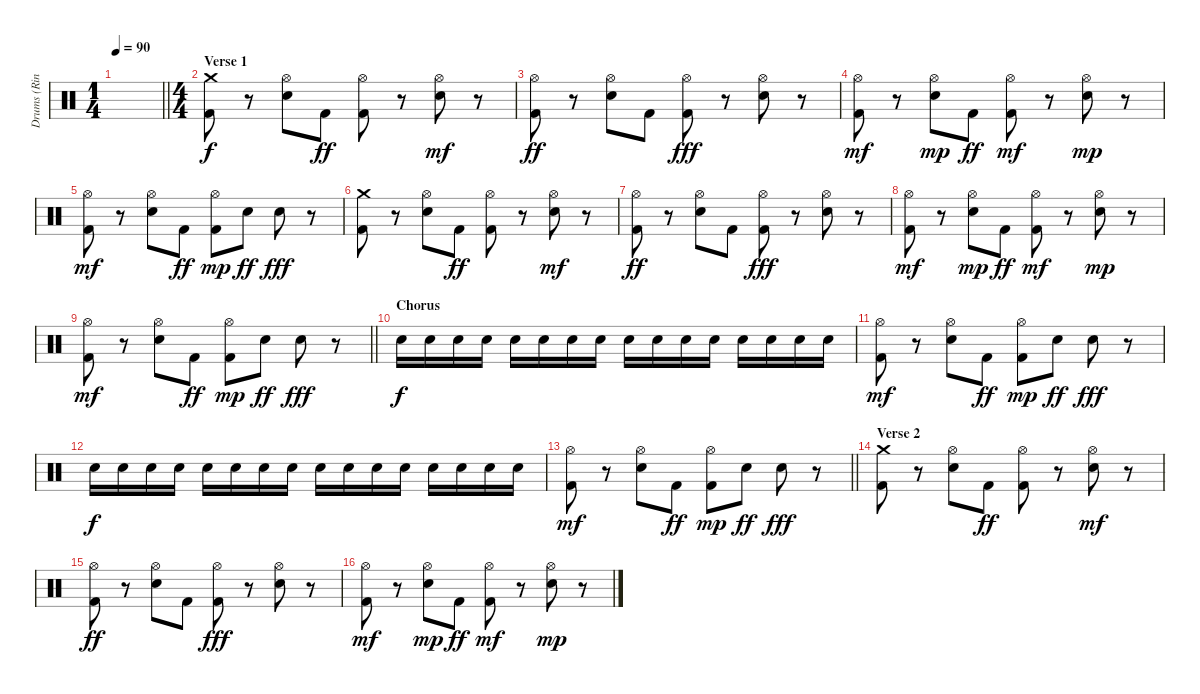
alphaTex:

\track ("Drums (Ringo Starr)" "Drums (Rin") {instrument percussion}
\staff {score}
\articulation defaults
\ts (1 4)
\tempo 90
\clef neutral
\barLineRight lightlight
\ks c
|
\ts (4 4)
\section ("" "Verse 1")
("Crash medium (hit)" "Kick (hit) 2").8 r.8 ("Hi-Hat (open)" "Electric Snare (hit)").8 "Kick (hit) 2".8{dy ff} ("Kick (hit) 2" "Hi-Hat (open)").8 r.8 ("Electric Snare (hit)" "Hi-Hat (open)").8{dy mf} r.8 |
("Hi-Hat (open)" "Kick (hit) 2").8{dy ff} r.8 ("Hi-Hat (open)" "Electric Snare (hit)").8 "Kick (hit) 2".8 ("Hi-Hat (open)" "Kick (hit) 2").8{dy fff} r.8 ("Electric Snare (hit)" "Hi-Hat (open)").8 r.8 |
("Kick (hit) 2" "Hi-Hat (open)").8{dy mf} r.8 ("Electric Snare (hit)" "Hi-Hat (open)").8{dy mp} "Kick (hit) 2".8{dy ff} ("Kick (hit) 2" "Hi-Hat (open)").8{dy mf} r.8 ("Electric Snare (hit)" "Hi-Hat (open)").8{dy mp} r.8 |
("Kick (hit) 2" "Hi-Hat (open)").8{dy mf} r.8 ("Electric Snare (hit)" "Hi-Hat (open)").8 "Kick (hit) 2".8{dy ff} ("Kick (hit) 2" "Hi-Hat (open)").8{dy mp} "Electric Snare (hit)".8{dy ff} "Electric Snare (hit)".8{dy fff} r.8 |
("Crash medium (hit)" "Kick (hit) 2").8 r.8 ("Hi-Hat (open)" "Electric Snare (hit)").8 "Kick (hit) 2".8{dy ff} ("Kick (hit) 2" "Hi-Hat (open)").8 r.8 ("Electric Snare (hit)" "Hi-Hat (open)").8{dy mf} r.8 |
("Hi-Hat (open)" "Kick (hit) 2").8{dy ff} r.8 ("Hi-Hat (open)" "Electric Snare (hit)").8 "Kick (hit) 2".8 ("Hi-Hat (open)" "Kick (hit) 2").8{dy fff} r.8 ("Electric Snare (hit)" "Hi-Hat (open)").8 r.8 |
("Kick (hit) 2" "Hi-Hat (open)").8{dy mf} r.8 ("Electric Snare (hit)" "Hi-Hat (open)").8{dy mp} "Kick (hit) 2".8{dy ff} ("Kick (hit) 2" "Hi-Hat (open)").8{dy mf} r.8 ("Electric Snare (hit)" "Hi-Hat (open)").8{dy mp} r.8 |
\barLineRight lightlight
("Kick (hit) 2" "Hi-Hat (open)").8{dy mf} r.8 ("Electric Snare (hit)" "Hi-Hat (open)").8 "Kick (hit) 2".8{dy ff} ("Kick (hit) 2" "Hi-Hat (open)").8{dy mp} "Electric Snare (hit)".8{dy ff} "Electric Snare (hit)".8{dy fff} r.8 |
\section ("" "Chorus ")
"Electric Snare (hit)".16{dy f} "Electric Snare (hit)".16 "Electric Snare (hit)".16 "Electric Snare (hit)".16 "Electric Snare (hit)".16 "Electric Snare (hit)".16 "Electric Snare (hit)".16 "Electric Snare (hit)".16 "Electric Snare (hit)".16 "Electric Snare (hit)".16 "Electric Snare (hit)".16 "Electric Snare (hit)".16 "Electric Snare (hit)".16 "Electric Snare (hit)".16 "Electric Snare (hit)".16 "Electric Snare (hit)".16 |
("Kick (hit) 2" "Hi-Hat (open)").8{dy mf} r.8 ("Electric Snare (hit)" "Hi-Hat (open)").8 "Kick (hit) 2".8{dy ff} ("Kick (hit) 2" "Hi-Hat (open)").8{dy mp} "Electric Snare (hit)".8{dy ff} "Electric Snare (hit)".8{dy fff} r.8 |
"Electric Snare (hit)".16{dy f} "Electric Snare (hit)".16 "Electric Snare (hit)".16 "Electric Snare (hit)".16 "Electric Snare (hit)".16 "Electric Snare (hit)".16 "Electric Snare (hit)".16 "Electric Snare (hit)".16 "Electric Snare (hit)".16 "Electric Snare (hit)".16 "Electric Snare (hit)".16 "Electric Snare (hit)".16 "Electric Snare (hit)".16 "Electric Snare (hit)".16 "Electric Snare (hit)".16 "Electric Snare (hit)".16 |
\barLineRight lightlight
("Kick (hit) 2" "Hi-Hat (open)").8{dy mf} r.8 ("Electric Snare (hit)" "Hi-Hat (open)").8 "Kick (hit) 2".8{dy ff} ("Kick (hit) 2" "Hi-Hat (open)").8{dy mp} "Electric Snare (hit)".8{dy ff} "Electric Snare (hit)".8{dy fff} r.8 |
\section ("" "Verse 2")
("Crash medium (hit)" "Kick (hit) 2").8 r.8 ("Hi-Hat (open)" "Electric Snare (hit)").8 "Kick (hit) 2".8{dy ff} ("Kick (hit) 2" "Hi-Hat (open)").8 r.8 ("Electric Snare (hit)" "Hi-Hat (open)").8{dy mf} r.8 |
("Hi-Hat (open)" "Kick (hit) 2").8{dy ff} r.8 ("Hi-Hat (open)" "Electric Snare (hit)").8 "Kick (hit) 2".8 ("Hi-Hat (open)" "Kick (hit) 2").8{dy fff} r.8 ("Electric Snare (hit)" "Hi-Hat (open)").8 r.8 |
("Kick (hit) 2" "Hi-Hat (open)").8{dy mf} r.8 ("Electric Snare (hit)" "Hi-Hat (open)").8{dy mp} "Kick (hit) 2".8{dy ff} ("Kick (hit) 2" "Hi-Hat (open)").8{dy mf} r.8 ("Electric Snare (hit)" "Hi-Hat (open)").8{dy mp} r.8
